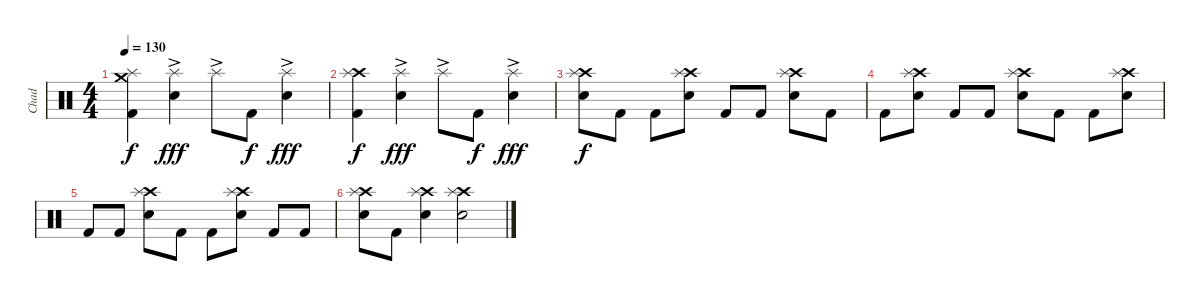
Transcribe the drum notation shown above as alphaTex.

\track ("Chad" "Chad") {instrument percussion}
\staff {score}
\articulation defaults
\ts (4 4)
\tempo 130
\clef neutral
\ks c
("Crash medium (hit)" "Splash (hit)" "Kick (hit) 2").4{dy f} ("Splash (hit)"{ac} "Snare (hit) 2").4{dy fff} "Splash (hit)"{ac}.8 "Kick (hit) 2".8{dy f} ("Splash (hit)"{ac} "Snare (hit) 2").4{dy fff} |
("Crash high (hit)" "Splash (hit)" "Kick (hit) 2").4{dy f} ("Splash (hit)"{ac} "Snare (hit) 2").4{dy fff} "Splash (hit)"{ac}.8 "Kick (hit) 2".8{dy f} ("Splash (hit)"{ac} "Snare (hit) 2").4{dy fff} |
("Crash high (hit)" "Splash (hit)" "Snare (hit) 2").8{dy f} "Kick (hit) 2".8 "Kick (hit) 2".8 ("Crash high (hit)" "Splash (hit)" "Snare (hit) 2").8 "Kick (hit) 2".8 "Kick (hit) 2".8 ("Crash high (hit)" "Splash (hit)" "Snare (hit) 2").8 "Kick (hit) 2".8 |
"Kick (hit) 2".8 ("Crash high (hit)" "Splash (hit)" "Snare (hit) 2").8 "Kick (hit) 2".8 "Kick (hit) 2".8 ("Crash high (hit)" "Splash (hit)" "Snare (hit) 2").8 "Kick (hit) 2".8 "Kick (hit) 2".8 ("Crash high (hit)" "Splash (hit)" "Snare (hit) 2").8 |
"Kick (hit) 2".8 "Kick (hit) 2".8 ("Crash high (hit)" "Splash (hit)" "Snare (hit) 2").8 "Kick (hit) 2".8 "Kick (hit) 2".8 ("Crash high (hit)" "Splash (hit)" "Snare (hit) 2").8 "Kick (hit) 2".8 "Kick (hit) 2".8 |
("Crash high (hit)" "Splash (hit)" "Snare (hit) 2").8 "Kick (hit) 2".8 ("Crash high (hit)" "Splash (hit)" "Snare (hit) 2").4 ("Crash high (hit)" "Splash (hit)" "Snare (hit) 2").2
